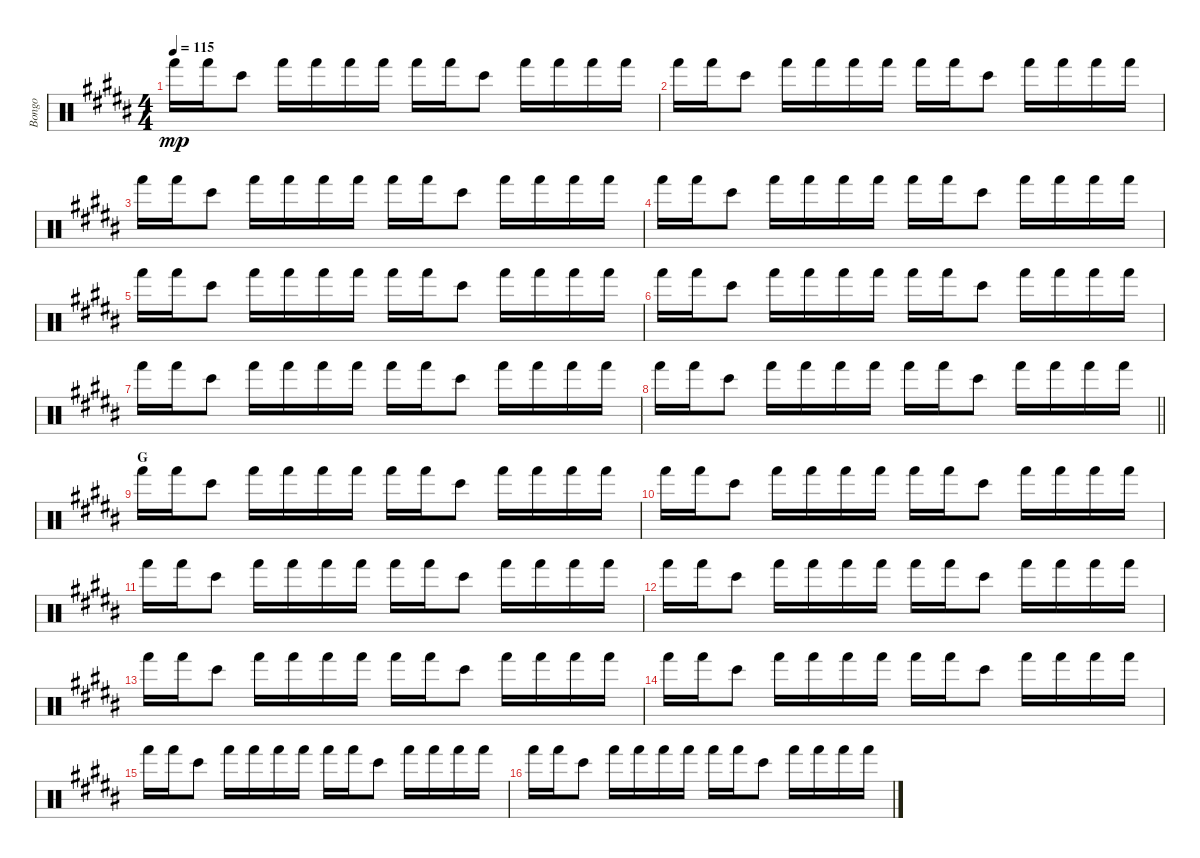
\track ("Bongo" "Bongo") {instrument percussion}
\staff {score}
\articulation defaults
\ts (4 4)
\tempo 115
\clef neutral
\ks b "Hand (hit)".16{dy mp} "Hand (hit)".16 "Bongo High (hit)".8 "Hand (hit)".16 "Hand (hit)".16 "Hand (hit)".16 "Hand (hit)".16 "Hand (hit)".16 "Hand (hit)".16 "Bongo High (hit)".8 "Hand (hit)".16 "Hand (hit)".16 "Hand (hit)".16 "Hand (hit)".16
|
"Hand (hit)".16 "Hand (hit)".16 "Bongo High (hit)".8 "Hand (hit)".16 "Hand (hit)".16 "Hand (hit)".16 "Hand (hit)".16 "Hand (hit)".16 "Hand (hit)".16 "Bongo High (hit)".8 "Hand (hit)".16 "Hand (hit)".16 "Hand (hit)".16 "Hand (hit)".16 |
"Hand (hit)".16 "Hand (hit)".16 "Bongo High (hit)".8 "Hand (hit)".16 "Hand (hit)".16 "Hand (hit)".16 "Hand (hit)".16 "Hand (hit)".16 "Hand (hit)".16 "Bongo High (hit)".8 "Hand (hit)".16 "Hand (hit)".16 "Hand (hit)".16 "Hand (hit)".16 |
"Hand (hit)".16 "Hand (hit)".16 "Bongo High (hit)".8 "Hand (hit)".16 "Hand (hit)".16 "Hand (hit)".16 "Hand (hit)".16 "Hand (hit)".16 "Hand (hit)".16 "Bongo High (hit)".8 "Hand (hit)".16 "Hand (hit)".16 "Hand (hit)".16 "Hand (hit)".16 |
"Hand (hit)".16 "Hand (hit)".16 "Bongo High (hit)".8 "Hand (hit)".16 "Hand (hit)".16 "Hand (hit)".16 "Hand (hit)".16 "Hand (hit)".16 "Hand (hit)".16 "Bongo High (hit)".8 "Hand (hit)".16 "Hand (hit)".16 "Hand (hit)".16 "Hand (hit)".16 |
"Hand (hit)".16 "Hand (hit)".16 "Bongo High (hit)".8 "Hand (hit)".16 "Hand (hit)".16 "Hand (hit)".16 "Hand (hit)".16 "Hand (hit)".16 "Hand (hit)".16 "Bongo High (hit)".8 "Hand (hit)".16 "Hand (hit)".16 "Hand (hit)".16 "Hand (hit)".16 |
"Hand (hit)".16 "Hand (hit)".16 "Bongo High (hit)".8 "Hand (hit)".16 "Hand (hit)".16 "Hand (hit)".16 "Hand (hit)".16 "Hand (hit)".16 "Hand (hit)".16 "Bongo High (hit)".8 "Hand (hit)".16 "Hand (hit)".16 "Hand (hit)".16 "Hand (hit)".16 |
\barLineRight lightlight "Hand (hit)".16 "Hand (hit)".16 "Bongo High (hit)".8 "Hand (hit)".16 "Hand (hit)".16 "Hand (hit)".16 "Hand (hit)".16 "Hand (hit)".16 "Hand (hit)".16 "Bongo High (hit)".8 "Hand (hit)".16 "Hand (hit)".16 "Hand (hit)".16 "Hand (hit)".16
|
\section ("" "G")
"Hand (hit)".16 "Hand (hit)".16 "Bongo High (hit)".8 "Hand (hit)".16 "Hand (hit)".16 "Hand (hit)".16 "Hand (hit)".16 "Hand (hit)".16 "Hand (hit)".16 "Bongo High (hit)".8 "Hand (hit)".16 "Hand (hit)".16 "Hand (hit)".16 "Hand (hit)".16 |
"Hand (hit)".16 "Hand (hit)".16 "Bongo High (hit)".8 "Hand (hit)".16 "Hand (hit)".16 "Hand (hit)".16 "Hand (hit)".16 "Hand (hit)".16 "Hand (hit)".16 "Bongo High (hit)".8 "Hand (hit)".16 "Hand (hit)".16 "Hand (hit)".16 "Hand (hit)".16 |
"Hand (hit)".16 "Hand (hit)".16 "Bongo High (hit)".8 "Hand (hit)".16 "Hand (hit)".16 "Hand (hit)".16 "Hand (hit)".16 "Hand (hit)".16 "Hand (hit)".16 "Bongo High (hit)".8 "Hand (hit)".16 "Hand (hit)".16 "Hand (hit)".16 "Hand (hit)".16 |
"Hand (hit)".16 "Hand (hit)".16 "Bongo High (hit)".8 "Hand (hit)".16 "Hand (hit)".16 "Hand (hit)".16 "Hand (hit)".16 "Hand (hit)".16 "Hand (hit)".16 "Bongo High (hit)".8 "Hand (hit)".16 "Hand (hit)".16 "Hand (hit)".16 "Hand (hit)".16 |
"Hand (hit)".16 "Hand (hit)".16 "Bongo High (hit)".8 "Hand (hit)".16 "Hand (hit)".16 "Hand (hit)".16 "Hand (hit)".16 "Hand (hit)".16 "Hand (hit)".16 "Bongo High (hit)".8 "Hand (hit)".16 "Hand (hit)".16 "Hand (hit)".16 "Hand (hit)".16 |
"Hand (hit)".16 "Hand (hit)".16 "Bongo High (hit)".8 "Hand (hit)".16 "Hand (hit)".16 "Hand (hit)".16 "Hand (hit)".16 "Hand (hit)".16 "Hand (hit)".16 "Bongo High (hit)".8 "Hand (hit)".16 "Hand (hit)".16 "Hand (hit)".16 "Hand (hit)".16 |
"Hand (hit)".16 "Hand (hit)".16 "Bongo High (hit)".8 "Hand (hit)".16 "Hand (hit)".16 "Hand (hit)".16 "Hand (hit)".16 "Hand (hit)".16 "Hand (hit)".16 "Bongo High (hit)".8 "Hand (hit)".16 "Hand (hit)".16 "Hand (hit)".16 "Hand (hit)".16 |
"Hand (hit)".16 "Hand (hit)".16 "Bongo High (hit)".8 "Hand (hit)".16 "Hand (hit)".16 "Hand (hit)".16 "Hand (hit)".16 "Hand (hit)".16 "Hand (hit)".16 "Bongo High (hit)".8 "Hand (hit)".16 "Hand (hit)".16 "Hand (hit)".16 "Hand (hit)".16
